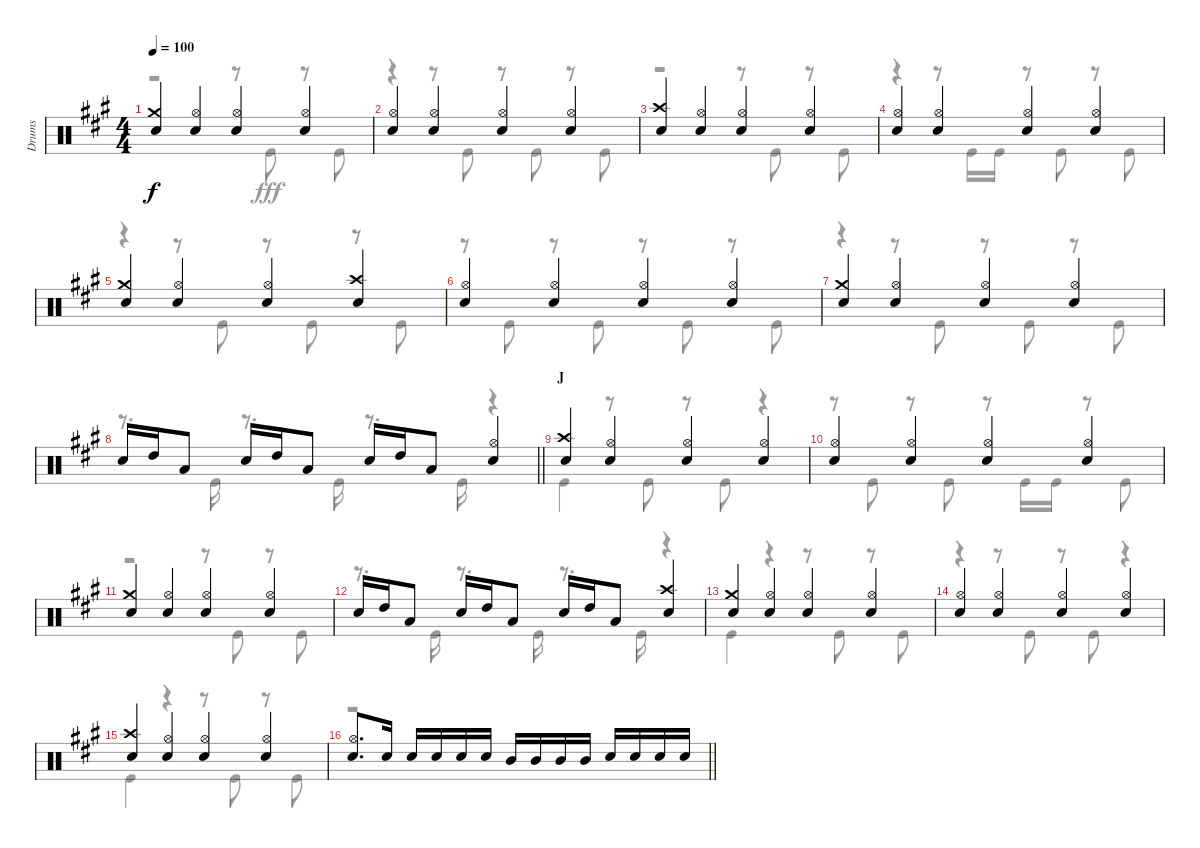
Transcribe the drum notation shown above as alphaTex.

\track ("Drums" "Drums") {instrument percussion}
\staff {score}
\articulation defaults
\voice
\ts (4 4)
\tempo 100
\clef neutral
\ks a
("Crash medium (hit)" "Snare (hit) 2").4{dy f} ("Hi-Hat (open)" "Snare (hit) 2").4 ("Hi-Hat (open)" "Snare (hit) 2").4 ("Hi-Hat (open)" "Snare (hit) 2").4 |
("Hi-Hat (open)" "Snare (hit) 2").4 ("Hi-Hat (open)" "Snare (hit) 2").4 ("Hi-Hat (open)" "Snare (hit) 2").4 ("Hi-Hat (open)" "Snare (hit) 2").4 |
("Crash high (hit)" "Snare (hit) 2").4 ("Hi-Hat (open)" "Snare (hit) 2").4 ("Hi-Hat (open)" "Snare (hit) 2").4 ("Hi-Hat (open)" "Snare (hit) 2").4 |
("Hi-Hat (open)" "Snare (hit) 2").4 ("Hi-Hat (open)" "Snare (hit) 2").4 ("Hi-Hat (open)" "Snare (hit) 2").4 ("Hi-Hat (open)" "Snare (hit) 2").4 |
("Crash medium (hit)" "Snare (hit) 2").4 ("Hi-Hat (open)" "Snare (hit) 2").4 ("Hi-Hat (open)" "Snare (hit) 2").4 ("Crash high (hit)" "Snare (hit) 2").4 |
("Hi-Hat (open)" "Snare (hit) 2").4 ("Hi-Hat (open)" "Snare (hit) 2").4 ("Hi-Hat (open)" "Snare (hit) 2").4 ("Hi-Hat (open)" "Snare (hit) 2").4 |
("Crash medium (hit)" "Snare (hit) 2").4 ("Hi-Hat (open)" "Snare (hit) 2").4 ("Hi-Hat (open)" "Snare (hit) 2").4 ("Hi-Hat (open)" "Snare (hit) 2").4 |
\barLineRight lightlight "Snare (hit) 2".16 "High Tom (hit)".16 "Low Tom (hit)".8 "Snare (hit) 2".16 "High Tom (hit)".16 "Low Tom (hit)".8 "Snare (hit) 2".16 "High Tom (hit)".16 "Low Tom (hit)".8
("Hi-Hat (open)" "Snare (hit) 2").4 |
\section ("" "J")
("Crash high (hit)" "Snare (hit) 2").4 ("Hi-Hat (open)" "Snare (hit) 2").4 ("Hi-Hat (open)" "Snare (hit) 2").4 ("Hi-Hat (open)" "Snare (hit) 2").4 |
("Hi-Hat (open)" "Snare (hit) 2").4 ("Hi-Hat (open)" "Snare (hit) 2").4 ("Hi-Hat (open)" "Snare (hit) 2").4 ("Hi-Hat (open)" "Snare (hit) 2").4 |
("Crash medium (hit)" "Snare (hit) 2").4 ("Hi-Hat (open)" "Snare (hit) 2").4 ("Hi-Hat (open)" "Snare (hit) 2").4 ("Hi-Hat (open)" "Snare (hit) 2").4 |
"Snare (hit) 2".16 "High Tom (hit)".16 "Low Tom (hit)".8 "Snare (hit) 2".16 "High Tom (hit)".16 "Low Tom (hit)".8 "Snare (hit) 2".16 "High Tom (hit)".16 "Low Tom (hit)".8 ("Crash high (hit)" "Snare (hit) 2").4 |
("Crash medium (hit)" "Snare (hit) 2").4 ("Hi-Hat (open)" "Snare (hit) 2").4 ("Hi-Hat (open)" "Snare (hit) 2").4 ("Hi-Hat (open)" "Snare (hit) 2").4 |
("Hi-Hat (open)" "Snare (hit) 2").4 ("Hi-Hat (open)" "Snare (hit) 2").4 ("Hi-Hat (open)" "Snare (hit) 2").4 ("Hi-Hat (open)" "Snare (hit) 2").4 |
("Crash high (hit)" "Snare (hit) 2").4 ("Hi-Hat (open)" "Snare (hit) 2").4 ("Hi-Hat (open)" "Snare (hit) 2").4 ("Hi-Hat (open)" "Snare (hit) 2").4 |
\barLineRight lightlight
("Hi-Hat (open)" "Snare (hit) 2").8{d} "Snare (hit) 2".16 "Snare (hit) 2".16 "Snare (hit) 2".16 "Snare (hit) 2".16 "Snare (hit) 2".16 "Mid Tom (hit)".16 "Mid Tom (hit)".16 "Mid Tom (hit)".16 "Mid Tom (hit)".16 "Snare (hit) 2".16 "Snare (hit) 2".16 "Snare (hit) 2".16 "Snare (hit) 2".16
\voice
\clef neutral
\ottava regular
\simile none
\ks a
r.2{dy fff} r.8 "Kick (hit)".8 r.8 "Kick (hit)".8 |
r.4 r.8 "Kick (hit)".8 r.8 "Kick (hit)".8 r.8 "Kick (hit)".8 |
r.2 r.8 "Kick (hit)".8 r.8 "Kick (hit)".8 |
r.4 r.8 "Kick (hit)".16 "Kick (hit)".16 r.8 "Kick (hit)".8 r.8 "Kick (hit)".8 |
r.4 r.8 "Kick (hit)".8 r.8 "Kick (hit)".8 r.8 "Kick (hit)".8 |
r.8 "Kick (hit)".8 r.8 "Kick (hit)".8 r.8 "Kick (hit)".8 r.8 "Kick (hit)".8 |
r.4 r.8 "Kick (hit)".8 r.8 "Kick (hit)".8 r.8 "Kick (hit)".8 |
\barLineRight lightlight
r.8{d} "Kick (hit)".16 r.8{d} "Kick (hit)".16 r.8{d} "Kick (hit)".16 r.4 |
"Kick (hit)".4 r.8 "Kick (hit)".8 r.8 "Kick (hit)".8 r.4 |
r.8 "Kick (hit)".8 r.8 "Kick (hit)".8 r.8 "Kick (hit)".16 "Kick (hit)".16 r.8 "Kick (hit)".8 |
r.2 r.8 "Kick (hit)".8 r.8 "Kick (hit)".8 |
r.8{d} "Kick (hit)".16 r.8{d} "Kick (hit)".16 r.8{d} "Kick (hit)".16 r.4 |
"Kick (hit)".4 r.4 r.8 "Kick (hit)".8 r.8 "Kick (hit)".8 |
r.4 r.8 "Kick (hit)".8 r.8 "Kick (hit)".8 r.4 |
"Kick (hit)".4 r.4 r.8 "Kick (hit)".8 r.8 "Kick (hit)".8 |
\barLineRight lightlight
r.1
